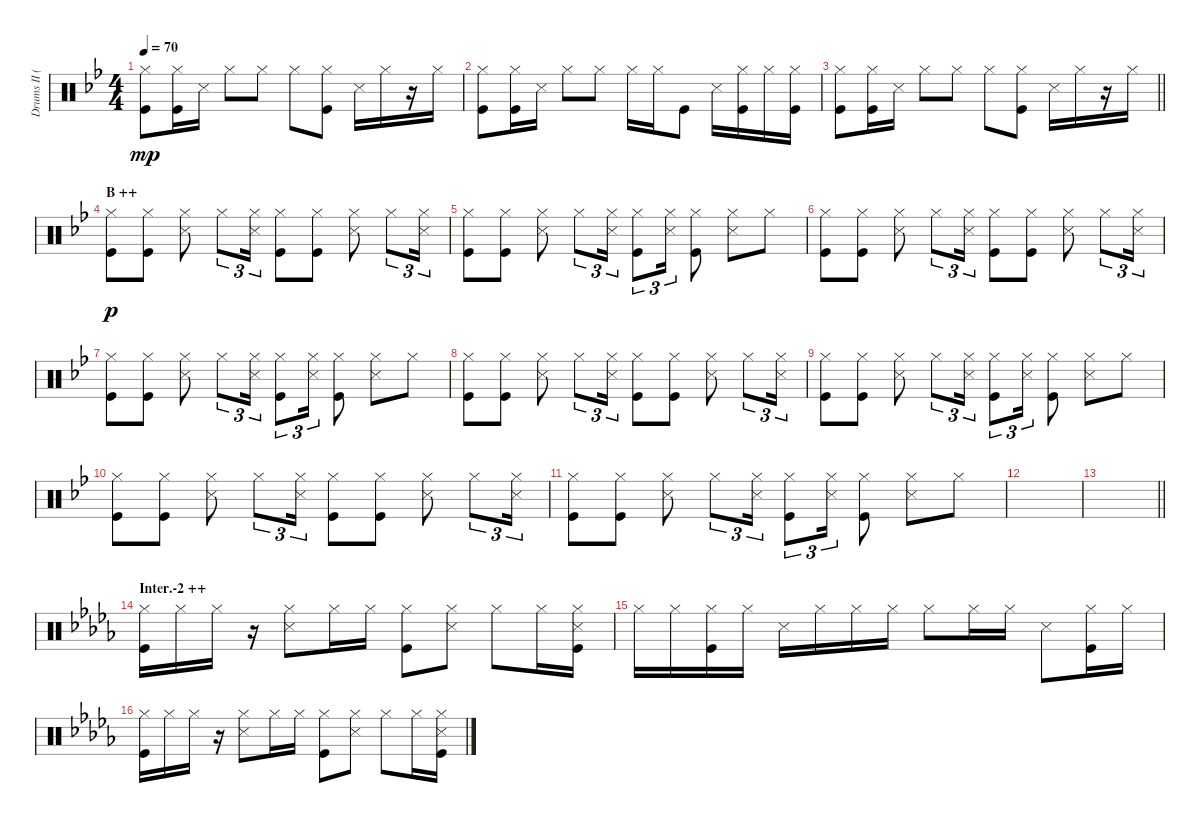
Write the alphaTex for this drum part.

\track ("Drums II (Tainaka Ritsu)" "Drums II (") {instrument percussion}
\staff {score}
\articulation defaults
\ts (4 4)
\tempo 70
\clef neutral
\ks bb
("Hi-Hat (closed)" "Kick (hit)").8{dy mp} ("Hi-Hat (closed)" "Kick (hit)").16 "Snare (side stick) 3".16 "Hi-Hat (closed)".8 "Hi-Hat (closed)".8 "Hi-Hat (closed)".8 ("Hi-Hat (closed)" "Kick (hit)").8 "Snare (side stick) 3".16 "Hi-Hat (closed)".16 r.16 "Hi-Hat (closed)".16 |
("Hi-Hat (closed)" "Kick (hit)").8 ("Hi-Hat (closed)" "Kick (hit)").16 "Snare (side stick) 3".16 "Hi-Hat (closed)".8 "Hi-Hat (closed)".8 "Hi-Hat (closed)".16 "Hi-Hat (closed)".16 "Kick (hit)".8 "Snare (side stick) 3".16 ("Hi-Hat (closed)" "Kick (hit)").16 "Hi-Hat (closed)".16 ("Hi-Hat (closed)" "Kick (hit)").16 |
\barLineRight lightlight
("Hi-Hat (closed)" "Kick (hit)").8 ("Hi-Hat (closed)" "Kick (hit)").16 "Snare (side stick) 3".16 "Hi-Hat (closed)".8 "Hi-Hat (closed)".8 "Hi-Hat (closed)".8 ("Hi-Hat (closed)" "Kick (hit)").8 "Snare (side stick) 3".16 "Hi-Hat (closed)".16 r.16 "Hi-Hat (closed)".16 |
\section ("" "B ++")
("Hi-Hat (closed)" "Kick (hit)").8{dy p} ("Hi-Hat (closed)" "Kick (hit)").8 ("Hi-Hat (closed)" "Snare (side stick) 3").8 "Hi-Hat (closed)".8{tu (3 2)} ("Hi-Hat (closed)" "Snare (side stick) 3").16{tu (3 2)} ("Hi-Hat (closed)" "Kick (hit)").8 ("Hi-Hat (closed)" "Kick (hit)").8 ("Hi-Hat (closed)" "Snare (side stick) 3").8 "Hi-Hat (closed)".8{tu (3 2)} ("Hi-Hat (closed)" "Snare (side stick) 3").16{tu (3 2)} |
("Hi-Hat (closed)" "Kick (hit)").8 ("Hi-Hat (closed)" "Kick (hit)").8 ("Hi-Hat (closed)" "Snare (side stick) 3").8 "Hi-Hat (closed)".8{tu (3 2)} ("Hi-Hat (closed)" "Snare (side stick) 3").16{tu (3 2)} ("Hi-Hat (closed)" "Kick (hit)").8{tu (3 2)} ("Hi-Hat (closed)" "Snare (side stick) 3").16{tu (3 2)} ("Hi-Hat (closed)" "Kick (hit)").8 ("Hi-Hat (closed)" "Snare (side stick) 3").8 "Hi-Hat (closed)".8 |
("Hi-Hat (closed)" "Kick (hit)").8 ("Hi-Hat (closed)" "Kick (hit)").8 ("Hi-Hat (closed)" "Snare (side stick) 3").8 "Hi-Hat (closed)".8{tu (3 2)} ("Hi-Hat (closed)" "Snare (side stick) 3").16{tu (3 2)} ("Hi-Hat (closed)" "Kick (hit)").8 ("Hi-Hat (closed)" "Kick (hit)").8 ("Hi-Hat (closed)" "Snare (side stick) 3").8 "Hi-Hat (closed)".8{tu (3 2)} ("Hi-Hat (closed)" "Snare (side stick) 3").16{tu (3 2)} |
("Hi-Hat (closed)" "Kick (hit)").8 ("Hi-Hat (closed)" "Kick (hit)").8 ("Hi-Hat (closed)" "Snare (side stick) 3").8 "Hi-Hat (closed)".8{tu (3 2)} ("Hi-Hat (closed)" "Snare (side stick) 3").16{tu (3 2)} ("Hi-Hat (closed)" "Kick (hit)").8{tu (3 2)} ("Hi-Hat (closed)" "Snare (side stick) 3").16{tu (3 2)} ("Hi-Hat (closed)" "Kick (hit)").8 ("Hi-Hat (closed)" "Snare (side stick) 3").8 "Hi-Hat (closed)".8 |
("Hi-Hat (closed)" "Kick (hit)").8 ("Hi-Hat (closed)" "Kick (hit)").8 ("Hi-Hat (closed)" "Snare (side stick) 3").8 "Hi-Hat (closed)".8{tu (3 2)} ("Hi-Hat (closed)" "Snare (side stick) 3").16{tu (3 2)} ("Hi-Hat (closed)" "Kick (hit)").8 ("Hi-Hat (closed)" "Kick (hit)").8 ("Hi-Hat (closed)" "Snare (side stick) 3").8 "Hi-Hat (closed)".8{tu (3 2)} ("Hi-Hat (closed)" "Snare (side stick) 3").16{tu (3 2)} |
("Hi-Hat (closed)" "Kick (hit)").8 ("Hi-Hat (closed)" "Kick (hit)").8 ("Hi-Hat (closed)" "Snare (side stick) 3").8 "Hi-Hat (closed)".8{tu (3 2)} ("Hi-Hat (closed)" "Snare (side stick) 3").16{tu (3 2)} ("Hi-Hat (closed)" "Kick (hit)").8{tu (3 2)} ("Hi-Hat (closed)" "Snare (side stick) 3").16{tu (3 2)} ("Hi-Hat (closed)" "Kick (hit)").8 ("Hi-Hat (closed)" "Snare (side stick) 3").8 "Hi-Hat (closed)".8 |
("Hi-Hat (closed)" "Kick (hit)").8 ("Hi-Hat (closed)" "Kick (hit)").8 ("Hi-Hat (closed)" "Snare (side stick) 3").8 "Hi-Hat (closed)".8{tu (3 2)} ("Hi-Hat (closed)" "Snare (side stick) 3").16{tu (3 2)} ("Hi-Hat (closed)" "Kick (hit)").8 ("Hi-Hat (closed)" "Kick (hit)").8 ("Hi-Hat (closed)" "Snare (side stick) 3").8 "Hi-Hat (closed)".8{tu (3 2)} ("Hi-Hat (closed)" "Snare (side stick) 3").16{tu (3 2)} |
("Hi-Hat (closed)" "Kick (hit)").8 ("Hi-Hat (closed)" "Kick (hit)").8 ("Hi-Hat (closed)" "Snare (side stick) 3").8 "Hi-Hat (closed)".8{tu (3 2)} ("Hi-Hat (closed)" "Snare (side stick) 3").16{tu (3 2)} ("Hi-Hat (closed)" "Kick (hit)").8{tu (3 2)} ("Hi-Hat (closed)" "Snare (side stick) 3").16{tu (3 2)} ("Hi-Hat (closed)" "Kick (hit)").8 ("Hi-Hat (closed)" "Snare (side stick) 3").8 "Hi-Hat (closed)".8 |
|
\barLineRight lightlight
|
\section ("" "Inter.-2 ++")
\ks db
("Hi-Hat (closed)" "Kick (hit)").16 "Hi-Hat (closed)".16 "Hi-Hat (closed)".16 r.16 ("Hi-Hat (closed)" "Snare (side stick) 3").8 "Hi-Hat (closed)".16 "Hi-Hat (closed)".16 ("Hi-Hat (closed)" "Kick (hit)").8 ("Hi-Hat (closed)" "Snare (side stick) 3").8 "Hi-Hat (closed)".8 "Hi-Hat (closed)".16 ("Hi-Hat (closed)" "Snare (side stick) 3" "Kick (hit)").16 |
"Hi-Hat (closed)".16 "Hi-Hat (closed)".16 ("Hi-Hat (closed)" "Kick (hit)").16 "Hi-Hat (closed)".16 "Snare (side stick) 3".16 "Hi-Hat (closed)".16 "Hi-Hat (closed)".16 "Hi-Hat (closed)".16 "Hi-Hat (closed)".8 "Hi-Hat (closed)".16 "Hi-Hat (closed)".16 "Snare (side stick) 3".8 ("Hi-Hat (closed)" "Kick (hit)").16 "Hi-Hat (closed)".16 |
("Hi-Hat (closed)" "Kick (hit)").16 "Hi-Hat (closed)".16 "Hi-Hat (closed)".16 r.16 ("Hi-Hat (closed)" "Snare (side stick) 3").8 "Hi-Hat (closed)".16 "Hi-Hat (closed)".16 ("Hi-Hat (closed)" "Kick (hit)").8 ("Hi-Hat (closed)" "Snare (side stick) 3").8 "Hi-Hat (closed)".8 "Hi-Hat (closed)".16 ("Hi-Hat (closed)" "Snare (side stick) 3" "Kick (hit)").16
